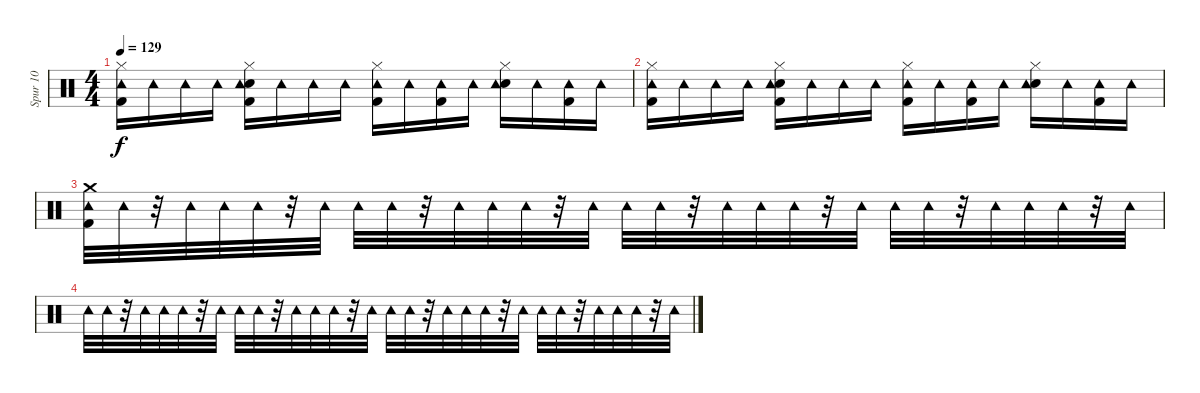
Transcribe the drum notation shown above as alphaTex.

\track ("Spur 10" "Spur 10") {instrument percussion}
\staff {score}
\articulation defaults
\ts (4 4)
\tempo 129
\clef neutral
\ks c
("Hi-Hat (closed)" "Kick (hit) 2" "Tambourine (hit)").16{dy f} "Tambourine (hit)".16 "Tambourine (hit)".16 "Tambourine (hit)".16 ("Kick (hit) 2" "Hi-Hat (closed)" "Snare (hit) 2" "Tambourine (hit)").16 "Tambourine (hit)".16 "Tambourine (hit)".16 "Tambourine (hit)".16 ("Hi-Hat (closed)" "Kick (hit) 2" "Tambourine (hit)").16 "Tambourine (hit)".16 ("Kick (hit) 2" "Tambourine (hit)").16 "Tambourine (hit)".16 ("Hi-Hat (closed)" "Snare (hit) 2" "Tambourine (hit)").16 "Tambourine (hit)".16 ("Kick (hit) 2" "Tambourine (hit)").16 "Tambourine (hit)".16 |
("Hi-Hat (closed)" "Kick (hit) 2" "Tambourine (hit)").16 "Tambourine (hit)".16 "Tambourine (hit)".16 "Tambourine (hit)".16 ("Kick (hit) 2" "Hi-Hat (closed)" "Snare (hit) 2" "Tambourine (hit)").16 "Tambourine (hit)".16 "Tambourine (hit)".16 "Tambourine (hit)".16 ("Hi-Hat (closed)" "Kick (hit) 2" "Tambourine (hit)").16 "Tambourine (hit)".16 ("Kick (hit) 2" "Tambourine (hit)").16 "Tambourine (hit)".16 ("Hi-Hat (closed)" "Snare (hit) 2" "Tambourine (hit)").16 "Tambourine (hit)".16 ("Kick (hit) 2" "Tambourine (hit)").16 "Tambourine (hit)".16 |
("Tambourine (hit)" "Kick (hit) 2" "Crash medium (hit)").32 "Tambourine (hit)".32 r.32 "Tambourine (hit)".32 "Tambourine (hit)".32 "Tambourine (hit)".32 r.32 "Tambourine (hit)".32 "Tambourine (hit)".32 "Tambourine (hit)".32 r.32 "Tambourine (hit)".32 "Tambourine (hit)".32 "Tambourine (hit)".32 r.32 "Tambourine (hit)".32 "Tambourine (hit)".32 "Tambourine (hit)".32 r.32 "Tambourine (hit)".32 "Tambourine (hit)".32 "Tambourine (hit)".32 r.32 "Tambourine (hit)".32 "Tambourine (hit)".32 "Tambourine (hit)".32 r.32 "Tambourine (hit)".32 "Tambourine (hit)".32 "Tambourine (hit)".32 r.32 "Tambourine (hit)".32 |
"Tambourine (hit)".32 "Tambourine (hit)".32 r.32 "Tambourine (hit)".32 "Tambourine (hit)".32 "Tambourine (hit)".32 r.32 "Tambourine (hit)".32 "Tambourine (hit)".32 "Tambourine (hit)".32 r.32 "Tambourine (hit)".32 "Tambourine (hit)".32 "Tambourine (hit)".32 r.32 "Tambourine (hit)".32 "Tambourine (hit)".32 "Tambourine (hit)".32 r.32 "Tambourine (hit)".32 "Tambourine (hit)".32 "Tambourine (hit)".32 r.32 "Tambourine (hit)".32 "Tambourine (hit)".32 "Tambourine (hit)".32 r.32 "Tambourine (hit)".32 "Tambourine (hit)".32 "Tambourine (hit)".32 r.32 "Tambourine (hit)".32
